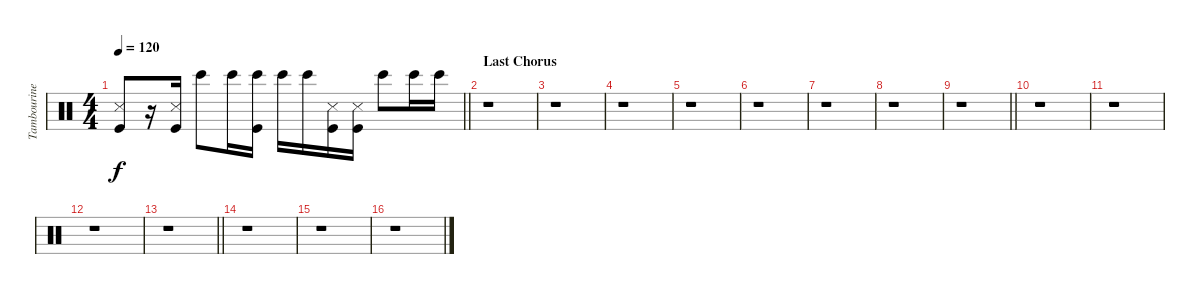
\track ("Tambourine" "Tambourine") {instrument percussion}
\staff {score}
\articulation defaults
\ts (4 4)
\tempo 120
\clef neutral
\barLineRight lightlight
\ks c
("Snare (side stick) 3" "Kick (hit)").8{dy f} r.16 ("Snare (side stick) 3" "Kick (hit)").16 "Bongo High (hit)".8 "Bongo High (hit)".16 ("Bongo High (hit)" "Kick (hit)").16 "Bongo High (hit)".16 "Bongo High (hit)".16 ("Snare (side stick) 3" "Kick (hit)").16 ("Snare (side stick) 3" "Kick (hit)").16 "Bongo High (hit)".8 "Bongo High (hit)".16 "Bongo High (hit)".16 |
\section ("" "Last Chorus")
r.1 |
r.1 |
r.1 |
r.1 |
r.1 |
r.1 |
r.1 |
\barLineRight lightlight
r.1 |
r.1 |
r.1 |
r.1 |
\barLineRight lightlight
r.1 |
r.1 |
r.1 |
r.1
